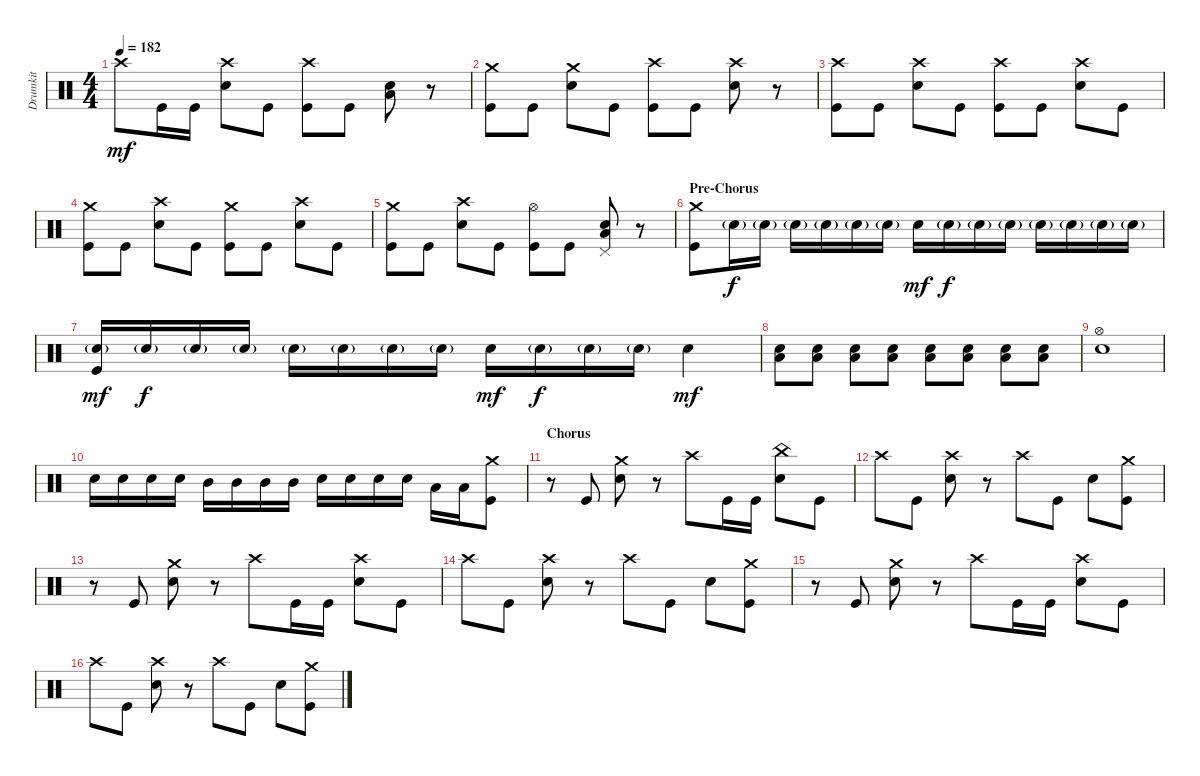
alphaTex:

\track ("Drumkit" "Drumkit") {instrument percussion}
\staff {score}
\articulation defaults
\ts (4 4)
\tempo 182
\clef neutral
\ks c "Crash high (hit)".8{dy mf} "Kick (hit)".16 "Kick (hit)".16
("Crash high (hit)" "Snare (hit) 2").8 "Kick (hit)".8 ("Crash high (hit)" "Kick (hit)").8 "Kick (hit)".8 ("Snare (hit) 2" "Low Tom (hit)").8 r.8 |
("Kick (hit)" "Crash medium (hit)").8 "Kick (hit)".8 ("Snare (hit) 2" "Crash medium (hit)").8 "Kick (hit)".8 ("Kick (hit)" "Crash high (hit)").8 "Kick (hit)".8 ("Snare (hit) 2" "Crash high (hit)").8 r.8 |
("Kick (hit)" "Crash high (hit)").8 "Kick (hit)".8 ("Snare (hit) 2" "Crash high (hit)").8 "Kick (hit)".8 ("Kick (hit)" "Crash high (hit)").8 "Kick (hit)".8 ("Snare (hit) 2" "Crash high (hit)").8 "Kick (hit)".8 |
("Kick (hit)" "Crash medium (hit)").8 "Kick (hit)".8 ("Snare (hit) 2" "Crash high (hit)").8 "Kick (hit)".8 ("Kick (hit)" "Crash medium (hit)").8 "Kick (hit)".8 ("Snare (hit) 2" "Crash high (hit)").8 "Kick (hit)".8 |
("Kick (hit)" "Crash medium (hit)").8 "Kick (hit)".8 ("Snare (hit) 2" "Crash high (hit)").8 "Kick (hit)".8 ("Kick (hit)" "Hi-Hat (open)").8 "Kick (hit)".8 ("Snare (hit) 2" "Low Tom (hit)" "Pedal Hi-Hat (hit)").8 r.8 |
\section ("" "Pre-Chorus")
("Kick (hit)" "Crash medium (hit)").8 "Snare (hit) 2"{g}.16{dy f} "Snare (hit) 2"{g}.16 "Snare (hit) 2"{g}.16 "Snare (hit) 2"{g}.16 "Snare (hit) 2"{g}.16 "Snare (hit) 2"{g}.16 "Snare (hit) 2".16{dy mf} "Snare (hit) 2"{g}.16{dy f} "Snare (hit) 2"{g}.16 "Snare (hit) 2"{g}.16 "Snare (hit) 2"{g}.16 "Snare (hit) 2"{g}.16 "Snare (hit) 2"{g}.16 "Snare (hit) 2"{g}.16 |
("Snare (hit) 2"{g} "Kick (hit)").16{dy mf} "Snare (hit) 2"{g}.16{dy f} "Snare (hit) 2"{g}.16 "Snare (hit) 2"{g}.16 "Snare (hit) 2"{g}.16 "Snare (hit) 2"{g}.16 "Snare (hit) 2"{g}.16 "Snare (hit) 2"{g}.16 "Snare (hit) 2".16{dy mf} "Snare (hit) 2"{g}.16{dy f} "Snare (hit) 2"{g}.16 "Snare (hit) 2"{g}.16 "Snare (hit) 2".4{dy mf} |
("Snare (hit) 2" "Low Tom (hit)").8 ("Snare (hit) 2" "Low Tom (hit)").8 ("Snare (hit) 2" "Low Tom (hit)").8 ("Snare (hit) 2" "Low Tom (hit)").8 ("Snare (hit) 2" "Low Tom (hit)").8 ("Snare (hit) 2" "Low Tom (hit)").8 ("Snare (hit) 2" "Low Tom (hit)").8 ("Snare (hit) 2" "Low Tom (hit)").8 |
("Snare (hit) 2" "Hi-Hat (open)").1 |
"Snare (hit) 2".16 "Snare (hit) 2".16 "Snare (hit) 2".16 "Snare (hit) 2".16 "Mid Tom (hit)".16 "Mid Tom (hit)".16 "Mid Tom (hit)".16 "Mid Tom (hit)".16 "Snare (hit) 2".16 "Snare (hit) 2".16 "Snare (hit) 2".16 "Snare (hit) 2".16 "Low Tom (hit)".16 "Low Tom (hit)".16 ("Kick (hit)" "Crash medium (hit)").8 |
\section ("" "Chorus")
r.8 "Kick (hit)".8 ("Snare (hit) 2" "Crash medium (hit)").8 r.8 "Crash high (hit)".8 "Kick (hit)".16 "Kick (hit)".16 ("Snare (hit) 2" "China (hit)").8 "Kick (hit)".8 |
"Crash high (hit)".8 "Kick (hit)".8 ("Snare (hit) 2" "Crash high (hit)").8 r.8 "Crash high (hit)".8 "Kick (hit)".8 "Snare (hit) 2".8 ("Kick (hit)" "Crash medium (hit)").8 |
r.8 "Kick (hit)".8 ("Snare (hit) 2" "Crash medium (hit)").8 r.8 "Crash high (hit)".8 "Kick (hit)".16 "Kick (hit)".16 ("Snare (hit) 2" "Crash high (hit)").8 "Kick (hit)".8 |
"Crash high (hit)".8 "Kick (hit)".8 ("Snare (hit) 2" "Crash high (hit)").8 r.8 "Crash high (hit)".8 "Kick (hit)".8 "Snare (hit) 2".8 ("Kick (hit)" "Crash medium (hit)").8 |
r.8 "Kick (hit)".8 ("Snare (hit) 2" "Crash medium (hit)").8 r.8 "Crash high (hit)".8 "Kick (hit)".16 "Kick (hit)".16 ("Snare (hit) 2" "Crash high (hit)").8 "Kick (hit)".8 |
"Crash high (hit)".8 "Kick (hit)".8 ("Snare (hit) 2" "Crash high (hit)").8 r.8 "Crash high (hit)".8 "Kick (hit)".8 "Snare (hit) 2".8 ("Kick (hit)" "Crash medium (hit)").8
